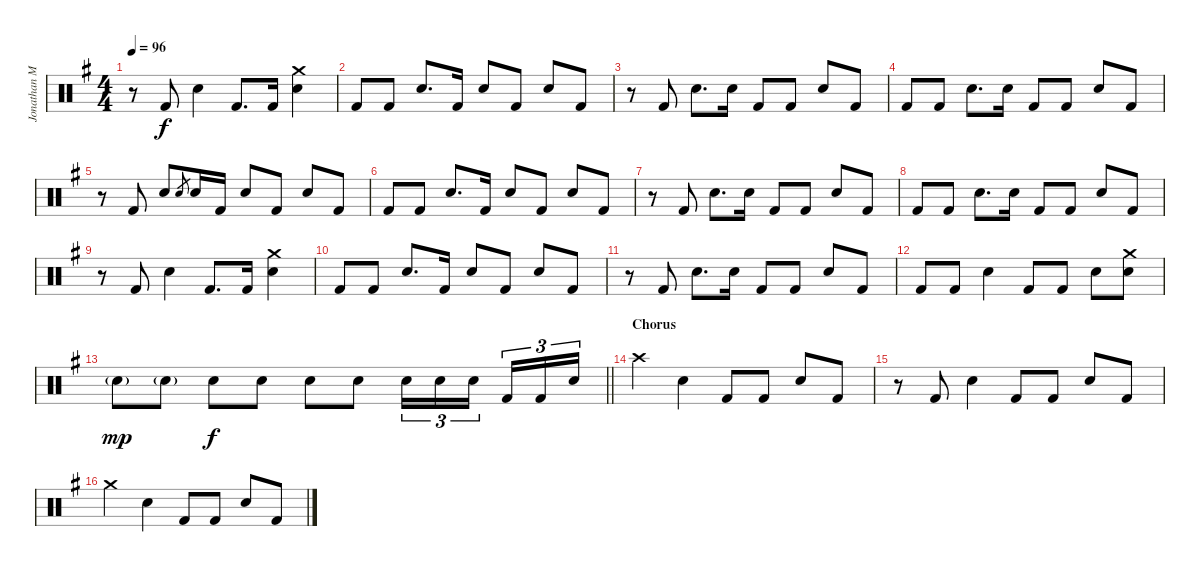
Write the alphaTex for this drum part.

\track ("Jonathan Mover (Drums)" "Jonathan M") {instrument percussion}
\staff {score}
\articulation defaults
\ts (4 4)
\tempo 96
\clef neutral
\ks g
r.8{dy f} "Kick (hit) 2".8 "Electric Snare (hit)".4 "Kick (hit) 2".8{d} "Kick (hit) 2".16 ("Electric Snare (hit)" "Crash medium (hit)").4 |
"Kick (hit) 2".8 "Kick (hit) 2".8 "Electric Snare (hit)".8{d} "Kick (hit) 2".16 "Electric Snare (hit)".8 "Kick (hit) 2".8 "Electric Snare (hit)".8 "Kick (hit) 2".8 |
r.8 "Kick (hit) 2".8 "Electric Snare (hit)".8{d} "Electric Snare (hit)".16 "Kick (hit) 2".8 "Kick (hit) 2".8 "Electric Snare (hit)".8 "Kick (hit) 2".8 |
"Kick (hit) 2".8 "Kick (hit) 2".8 "Electric Snare (hit)".8{d} "Electric Snare (hit)".16 "Kick (hit) 2".8 "Kick (hit) 2".8 "Electric Snare (hit)".8 "Kick (hit) 2".8 |
r.8 "Kick (hit) 2".8 "Electric Snare (hit)".8 "Electric Snare (hit)".8{gr} "Electric Snare (hit)".16 "Kick (hit) 2".16 "Electric Snare (hit)".8 "Kick (hit) 2".8 "Electric Snare (hit)".8 "Kick (hit) 2".8 |
"Kick (hit) 2".8{volume 14} "Kick (hit) 2".8 "Electric Snare (hit)".8{d} "Kick (hit) 2".16 "Electric Snare (hit)".8 "Kick (hit) 2".8 "Electric Snare (hit)".8 "Kick (hit) 2".8 |
r.8 "Kick (hit) 2".8 "Electric Snare (hit)".8{d} "Electric Snare (hit)".16 "Kick (hit) 2".8 "Kick (hit) 2".8 "Electric Snare (hit)".8 "Kick (hit) 2".8 |
"Kick (hit) 2".8 "Kick (hit) 2".8 "Electric Snare (hit)".8{d} "Electric Snare (hit)".16 "Kick (hit) 2".8 "Kick (hit) 2".8 "Electric Snare (hit)".8 "Kick (hit) 2".8 |
r.8 "Kick (hit) 2".8 "Electric Snare (hit)".4 "Kick (hit) 2".8{d} "Kick (hit) 2".16 ("Electric Snare (hit)" "Crash medium (hit)").4 |
"Kick (hit) 2".8 "Kick (hit) 2".8 "Electric Snare (hit)".8{d} "Kick (hit) 2".16 "Electric Snare (hit)".8 "Kick (hit) 2".8 "Electric Snare (hit)".8 "Kick (hit) 2".8 |
r.8 "Kick (hit) 2".8 "Electric Snare (hit)".8{d} "Electric Snare (hit)".16 "Kick (hit) 2".8 "Kick (hit) 2".8 "Electric Snare (hit)".8 "Kick (hit) 2".8 |
"Kick (hit) 2".8 "Kick (hit) 2".8 "Electric Snare (hit)".4 "Kick (hit) 2".8 "Kick (hit) 2".8 "Electric Snare (hit)".8 ("Crash medium (hit)" "Electric Snare (hit)").8 |
\barLineRight lightlight "Electric Snare (hit)"{g}.8{dy mp volume 16} "Electric Snare (hit)"{g}.8 "Electric Snare (hit)".8{dy f} "Electric Snare (hit)".8 "Electric Snare (hit)".8 "Electric Snare (hit)".8 "Snare (hit) 2".16{tu (3 2)} "Snare (hit) 2".16{tu (3 2)} "Electric Snare (hit)".16{tu (3 2) beam splitsecondary} "Kick (hit) 2".16{tu (3 2)} "Kick (hit) 2".16{tu (3 2)} "Electric Snare (hit)".16{tu (3 2)}
|
\section ("" "Chorus")
"Crash high (hit)".4 "Electric Snare (hit)".4 "Kick (hit) 2".8 "Kick (hit) 2".8 "Electric Snare (hit)".8 "Kick (hit) 2".8 |
r.8 "Kick (hit) 2".8 "Electric Snare (hit)".4 "Kick (hit) 2".8 "Kick (hit) 2".8 "Electric Snare (hit)".8 "Kick (hit) 2".8 |
"Crash medium (hit)".4 "Electric Snare (hit)".4 "Kick (hit) 2".8 "Kick (hit) 2".8 "Electric Snare (hit)".8 "Kick (hit) 2".8
